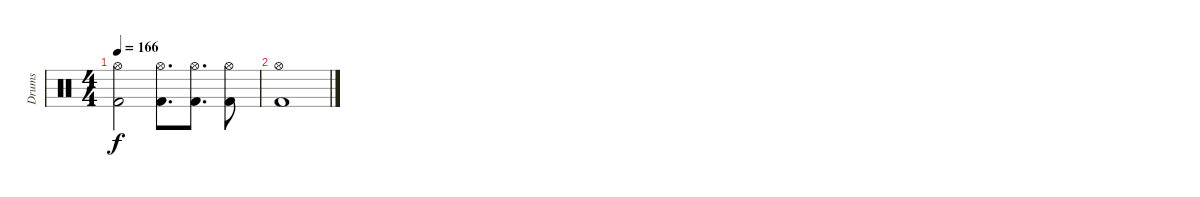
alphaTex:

\track ("Drums" "Drums") {instrument percussion}
\staff {score}
\articulation defaults
\ts (4 4)
\tempo 166
\clef neutral
\ks c
("Hi-Hat (open)" "Kick (hit) 2").2{dy f} ("Hi-Hat (open)" "Kick (hit) 2").8{d} ("Hi-Hat (open)" "Kick (hit) 2").8{d} ("Hi-Hat (open)" "Kick (hit) 2").8 |
("Hi-Hat (open)" "Kick (hit) 2").1
